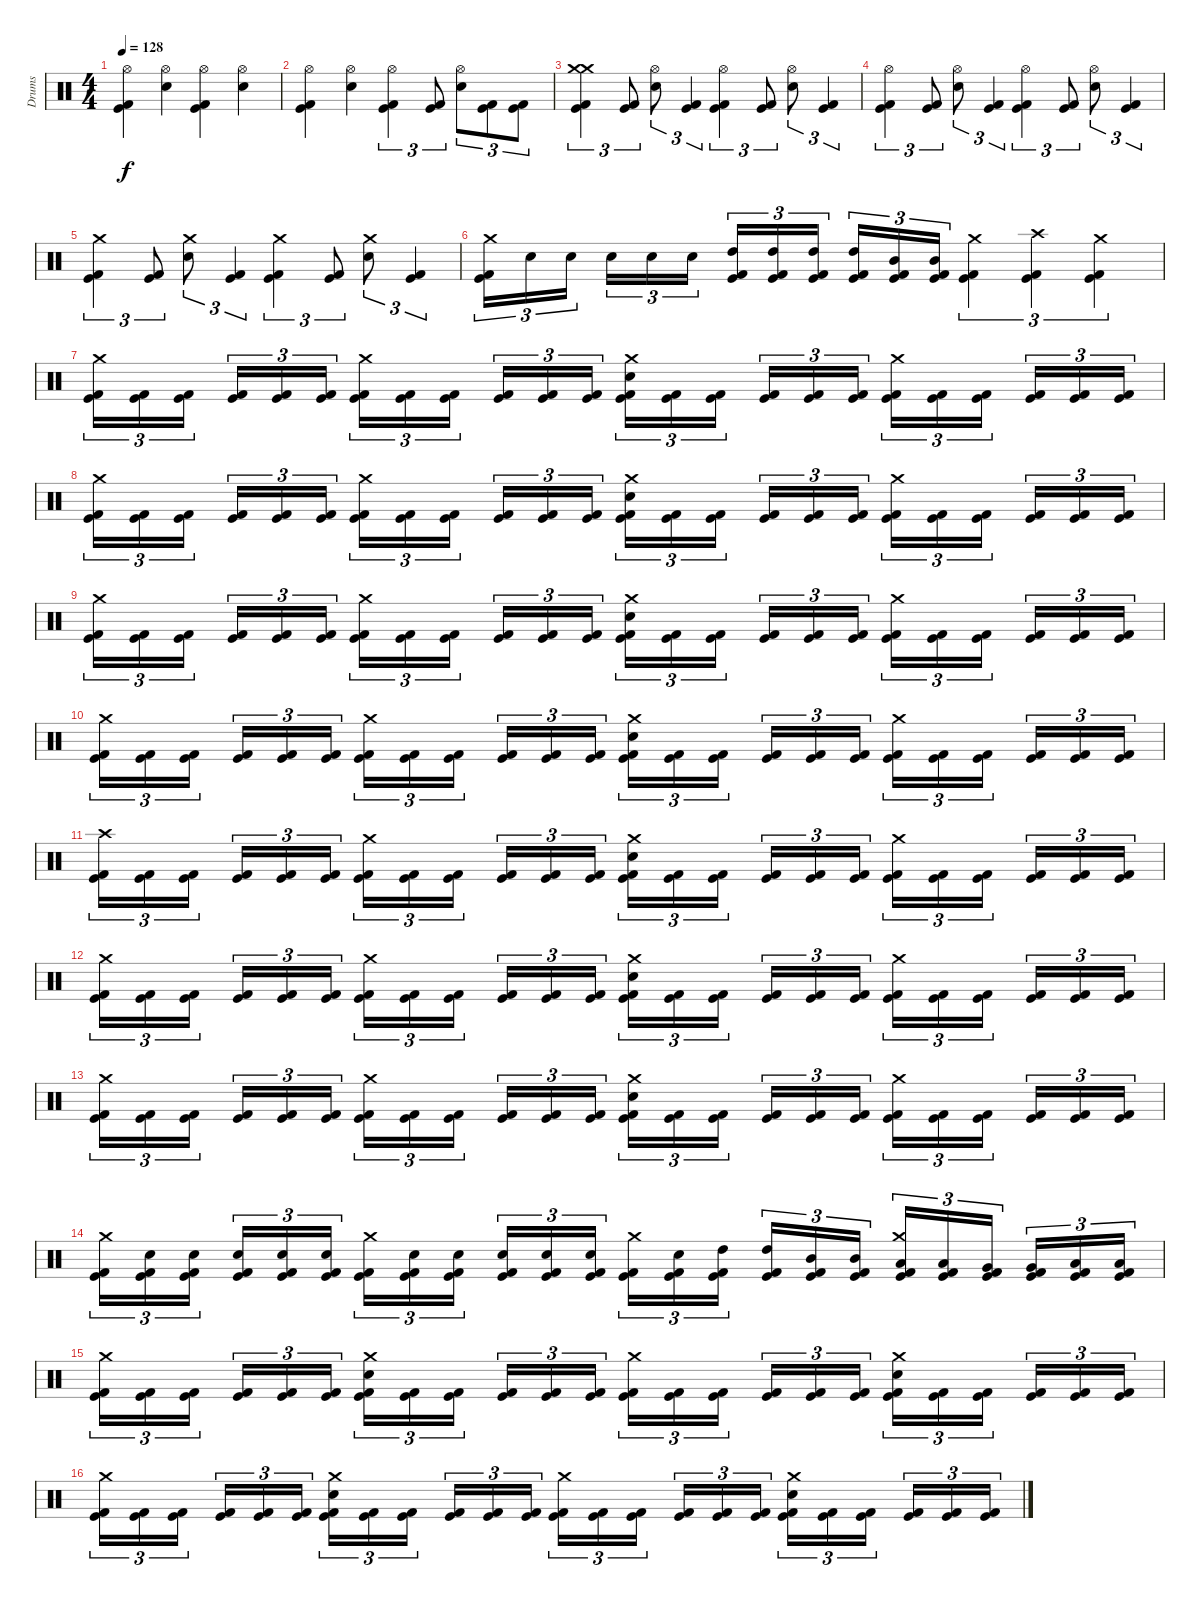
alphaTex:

\track ("Drums" "Drums") {instrument percussion}
\staff {score}
\articulation defaults
\ts (4 4)
\tempo 128
\clef neutral
\ks c
("Hi-Hat (open)" "Kick (hit)" "Kick (hit) 2").4{dy f} ("Hi-Hat (open)" "Electric Snare (hit)").4 ("Hi-Hat (open)" "Kick (hit)" "Kick (hit) 2").4 ("Hi-Hat (open)" "Electric Snare (hit)").4 |
("Hi-Hat (open)" "Kick (hit)" "Kick (hit) 2").4 ("Hi-Hat (open)" "Electric Snare (hit)").4 ("Hi-Hat (open)" "Kick (hit)" "Kick (hit) 2").4{tu (3 2)} ("Kick (hit)" "Kick (hit) 2").8{tu (3 2)} ("Hi-Hat (open)" "Electric Snare (hit)").8{tu (3 2)} ("Kick (hit)" "Kick (hit) 2").8{tu (3 2)} ("Kick (hit)" "Kick (hit) 2").8{tu (3 2)} |
("Crash medium (hit)" "Crash medium (hit)" "Kick (hit)" "Kick (hit) 2").4{tu (3 2)} ("Kick (hit)" "Kick (hit) 2").8{tu (3 2)} ("Hi-Hat (open)" "Electric Snare (hit)").8{tu (3 2)} ("Kick (hit)" "Kick (hit) 2").4{tu (3 2)} ("Hi-Hat (open)" "Kick (hit)" "Kick (hit) 2").4{tu (3 2)} ("Kick (hit)" "Kick (hit) 2").8{tu (3 2)} ("Hi-Hat (open)" "Electric Snare (hit)").8{tu (3 2)} ("Kick (hit)" "Kick (hit) 2").4{tu (3 2)} |
("Hi-Hat (open)" "Kick (hit)" "Kick (hit) 2").4{tu (3 2)} ("Kick (hit)" "Kick (hit) 2").8{tu (3 2)} ("Hi-Hat (open)" "Electric Snare (hit)").8{tu (3 2)} ("Kick (hit)" "Kick (hit) 2").4{tu (3 2)} ("Hi-Hat (open)" "Kick (hit)" "Kick (hit) 2").4{tu (3 2)} ("Kick (hit)" "Kick (hit) 2").8{tu (3 2)} ("Hi-Hat (open)" "Electric Snare (hit)").8{tu (3 2)} ("Kick (hit)" "Kick (hit) 2").4{tu (3 2)} |
("Crash medium (hit)" "Kick (hit)" "Kick (hit) 2").4{tu (3 2)} ("Kick (hit)" "Kick (hit) 2").8{tu (3 2)} ("Crash medium (hit)" "Electric Snare (hit)").8{tu (3 2)} ("Kick (hit)" "Kick (hit) 2").4{tu (3 2)} ("Crash medium (hit)" "Kick (hit)" "Kick (hit) 2").4{tu (3 2)} ("Kick (hit)" "Kick (hit) 2").8{tu (3 2)} ("Crash medium (hit)" "Electric Snare (hit)").8{tu (3 2)} ("Kick (hit)" "Kick (hit) 2").4{tu (3 2)} |
("Crash medium (hit)" "Kick (hit)" "Kick (hit) 2").16{tu (3 2)} "Electric Snare (hit)".16{tu (3 2)} "Electric Snare (hit)".16{tu (3 2)} "Electric Snare (hit)".16{tu (3 2)} "Electric Snare (hit)".16{tu (3 2)} "Electric Snare (hit)".16{tu (3 2)} ("High Tom (hit)" "Kick (hit)" "Kick (hit) 2").16{tu (3 2)} ("High Tom (hit)" "Kick (hit)" "Kick (hit) 2").16{tu (3 2)} ("High Tom (hit)" "Kick (hit)" "Kick (hit) 2").16{tu (3 2)} ("High Tom (hit)" "Kick (hit)" "Kick (hit) 2").16{tu (3 2)} ("Mid Tom (hit)" "Kick (hit)" "Kick (hit) 2").16{tu (3 2)} ("Mid Tom (hit)" "Kick (hit)" "Kick (hit) 2").16{tu (3 2)} ("Crash medium (hit)" "Kick (hit)" "Kick (hit) 2").4{tu (3 2)} ("Crash high (hit)" "Kick (hit)" "Kick (hit) 2").4{tu (3 2)} ("Crash medium (hit)" "Kick (hit)" "Kick (hit) 2").4{tu (3 2)} |
("Crash medium (hit)" "Kick (hit)" "Kick (hit) 2").16{tu (3 2)} ("Kick (hit)" "Kick (hit) 2").16{tu (3 2)} ("Kick (hit)" "Kick (hit) 2").16{tu (3 2)} ("Kick (hit)" "Kick (hit) 2").16{tu (3 2)} ("Kick (hit)" "Kick (hit) 2").16{tu (3 2)} ("Kick (hit)" "Kick (hit) 2").16{tu (3 2)} ("Crash medium (hit)" "Kick (hit)" "Kick (hit) 2").16{tu (3 2)} ("Kick (hit)" "Kick (hit) 2").16{tu (3 2)} ("Kick (hit)" "Kick (hit) 2").16{tu (3 2)} ("Kick (hit)" "Kick (hit) 2").16{tu (3 2)} ("Kick (hit)" "Kick (hit) 2").16{tu (3 2)} ("Kick (hit)" "Kick (hit) 2").16{tu (3 2)} ("Crash medium (hit)" "Electric Snare (hit)" "Kick (hit)" "Kick (hit) 2").16{tu (3 2)} ("Kick (hit)" "Kick (hit) 2").16{tu (3 2)} ("Kick (hit)" "Kick (hit) 2").16{tu (3 2)} ("Kick (hit)" "Kick (hit) 2").16{tu (3 2)} ("Kick (hit)" "Kick (hit) 2").16{tu (3 2)} ("Kick (hit)" "Kick (hit) 2").16{tu (3 2)} ("Crash medium (hit)" "Kick (hit)" "Kick (hit) 2").16{tu (3 2)} ("Kick (hit)" "Kick (hit) 2").16{tu (3 2)} ("Kick (hit)" "Kick (hit) 2").16{tu (3 2)} ("Kick (hit)" "Kick (hit) 2").16{tu (3 2)} ("Kick (hit)" "Kick (hit) 2").16{tu (3 2)} ("Kick (hit)" "Kick (hit) 2").16{tu (3 2)} |
("Crash medium (hit)" "Kick (hit)" "Kick (hit) 2").16{tu (3 2)} ("Kick (hit)" "Kick (hit) 2").16{tu (3 2)} ("Kick (hit)" "Kick (hit) 2").16{tu (3 2)} ("Kick (hit)" "Kick (hit) 2").16{tu (3 2)} ("Kick (hit)" "Kick (hit) 2").16{tu (3 2)} ("Kick (hit)" "Kick (hit) 2").16{tu (3 2)} ("Crash medium (hit)" "Kick (hit)" "Kick (hit) 2").16{tu (3 2)} ("Kick (hit)" "Kick (hit) 2").16{tu (3 2)} ("Kick (hit)" "Kick (hit) 2").16{tu (3 2)} ("Kick (hit)" "Kick (hit) 2").16{tu (3 2)} ("Kick (hit)" "Kick (hit) 2").16{tu (3 2)} ("Kick (hit)" "Kick (hit) 2").16{tu (3 2)} ("Crash medium (hit)" "Electric Snare (hit)" "Kick (hit)" "Kick (hit) 2").16{tu (3 2)} ("Kick (hit)" "Kick (hit) 2").16{tu (3 2)} ("Kick (hit)" "Kick (hit) 2").16{tu (3 2)} ("Kick (hit)" "Kick (hit) 2").16{tu (3 2)} ("Kick (hit)" "Kick (hit) 2").16{tu (3 2)} ("Kick (hit)" "Kick (hit) 2").16{tu (3 2)} ("Crash medium (hit)" "Kick (hit)" "Kick (hit) 2").16{tu (3 2)} ("Kick (hit)" "Kick (hit) 2").16{tu (3 2)} ("Kick (hit)" "Kick (hit) 2").16{tu (3 2)} ("Kick (hit)" "Kick (hit) 2").16{tu (3 2)} ("Kick (hit)" "Kick (hit) 2").16{tu (3 2)} ("Kick (hit)" "Kick (hit) 2").16{tu (3 2)} |
("Crash medium (hit)" "Kick (hit)" "Kick (hit) 2").16{tu (3 2)} ("Kick (hit)" "Kick (hit) 2").16{tu (3 2)} ("Kick (hit)" "Kick (hit) 2").16{tu (3 2)} ("Kick (hit)" "Kick (hit) 2").16{tu (3 2)} ("Kick (hit)" "Kick (hit) 2").16{tu (3 2)} ("Kick (hit)" "Kick (hit) 2").16{tu (3 2)} ("Crash medium (hit)" "Kick (hit)" "Kick (hit) 2").16{tu (3 2)} ("Kick (hit)" "Kick (hit) 2").16{tu (3 2)} ("Kick (hit)" "Kick (hit) 2").16{tu (3 2)} ("Kick (hit)" "Kick (hit) 2").16{tu (3 2)} ("Kick (hit)" "Kick (hit) 2").16{tu (3 2)} ("Kick (hit)" "Kick (hit) 2").16{tu (3 2)} ("Crash medium (hit)" "Electric Snare (hit)" "Kick (hit)" "Kick (hit) 2").16{tu (3 2)} ("Kick (hit)" "Kick (hit) 2").16{tu (3 2)} ("Kick (hit)" "Kick (hit) 2").16{tu (3 2)} ("Kick (hit)" "Kick (hit) 2").16{tu (3 2)} ("Kick (hit)" "Kick (hit) 2").16{tu (3 2)} ("Kick (hit)" "Kick (hit) 2").16{tu (3 2)} ("Crash medium (hit)" "Kick (hit)" "Kick (hit) 2").16{tu (3 2)} ("Kick (hit)" "Kick (hit) 2").16{tu (3 2)} ("Kick (hit)" "Kick (hit) 2").16{tu (3 2)} ("Kick (hit)" "Kick (hit) 2").16{tu (3 2)} ("Kick (hit)" "Kick (hit) 2").16{tu (3 2)} ("Kick (hit)" "Kick (hit) 2").16{tu (3 2)} |
("Crash medium (hit)" "Kick (hit)" "Kick (hit) 2").16{tu (3 2)} ("Kick (hit)" "Kick (hit) 2").16{tu (3 2)} ("Kick (hit)" "Kick (hit) 2").16{tu (3 2)} ("Kick (hit)" "Kick (hit) 2").16{tu (3 2)} ("Kick (hit)" "Kick (hit) 2").16{tu (3 2)} ("Kick (hit)" "Kick (hit) 2").16{tu (3 2)} ("Crash medium (hit)" "Kick (hit)" "Kick (hit) 2").16{tu (3 2)} ("Kick (hit)" "Kick (hit) 2").16{tu (3 2)} ("Kick (hit)" "Kick (hit) 2").16{tu (3 2)} ("Kick (hit)" "Kick (hit) 2").16{tu (3 2)} ("Kick (hit)" "Kick (hit) 2").16{tu (3 2)} ("Kick (hit)" "Kick (hit) 2").16{tu (3 2)} ("Crash medium (hit)" "Electric Snare (hit)" "Kick (hit)" "Kick (hit) 2").16{tu (3 2)} ("Kick (hit)" "Kick (hit) 2").16{tu (3 2)} ("Kick (hit)" "Kick (hit) 2").16{tu (3 2)} ("Kick (hit)" "Kick (hit) 2").16{tu (3 2)} ("Kick (hit)" "Kick (hit) 2").16{tu (3 2)} ("Kick (hit)" "Kick (hit) 2").16{tu (3 2)} ("Crash medium (hit)" "Kick (hit)" "Kick (hit) 2").16{tu (3 2)} ("Kick (hit)" "Kick (hit) 2").16{tu (3 2)} ("Kick (hit)" "Kick (hit) 2").16{tu (3 2)} ("Kick (hit)" "Kick (hit) 2").16{tu (3 2)} ("Kick (hit)" "Kick (hit) 2").16{tu (3 2)} ("Kick (hit)" "Kick (hit) 2").16{tu (3 2)} |
("Crash high (hit)" "Kick (hit)" "Kick (hit) 2").16{tu (3 2)} ("Kick (hit)" "Kick (hit) 2").16{tu (3 2)} ("Kick (hit)" "Kick (hit) 2").16{tu (3 2)} ("Kick (hit)" "Kick (hit) 2").16{tu (3 2)} ("Kick (hit)" "Kick (hit) 2").16{tu (3 2)} ("Kick (hit)" "Kick (hit) 2").16{tu (3 2)} ("Crash medium (hit)" "Kick (hit)" "Kick (hit) 2").16{tu (3 2)} ("Kick (hit)" "Kick (hit) 2").16{tu (3 2)} ("Kick (hit)" "Kick (hit) 2").16{tu (3 2)} ("Kick (hit)" "Kick (hit) 2").16{tu (3 2)} ("Kick (hit)" "Kick (hit) 2").16{tu (3 2)} ("Kick (hit)" "Kick (hit) 2").16{tu (3 2)} ("Crash medium (hit)" "Electric Snare (hit)" "Kick (hit)" "Kick (hit) 2").16{tu (3 2)} ("Kick (hit)" "Kick (hit) 2").16{tu (3 2)} ("Kick (hit)" "Kick (hit) 2").16{tu (3 2)} ("Kick (hit)" "Kick (hit) 2").16{tu (3 2)} ("Kick (hit)" "Kick (hit) 2").16{tu (3 2)} ("Kick (hit)" "Kick (hit) 2").16{tu (3 2)} ("Crash medium (hit)" "Kick (hit)" "Kick (hit) 2").16{tu (3 2)} ("Kick (hit)" "Kick (hit) 2").16{tu (3 2)} ("Kick (hit)" "Kick (hit) 2").16{tu (3 2)} ("Kick (hit)" "Kick (hit) 2").16{tu (3 2)} ("Kick (hit)" "Kick (hit) 2").16{tu (3 2)} ("Kick (hit)" "Kick (hit) 2").16{tu (3 2)} |
("Crash medium (hit)" "Kick (hit)" "Kick (hit) 2").16{tu (3 2)} ("Kick (hit)" "Kick (hit) 2").16{tu (3 2)} ("Kick (hit)" "Kick (hit) 2").16{tu (3 2)} ("Kick (hit)" "Kick (hit) 2").16{tu (3 2)} ("Kick (hit)" "Kick (hit) 2").16{tu (3 2)} ("Kick (hit)" "Kick (hit) 2").16{tu (3 2)} ("Crash medium (hit)" "Kick (hit)" "Kick (hit) 2").16{tu (3 2)} ("Kick (hit)" "Kick (hit) 2").16{tu (3 2)} ("Kick (hit)" "Kick (hit) 2").16{tu (3 2)} ("Kick (hit)" "Kick (hit) 2").16{tu (3 2)} ("Kick (hit)" "Kick (hit) 2").16{tu (3 2)} ("Kick (hit)" "Kick (hit) 2").16{tu (3 2)} ("Crash medium (hit)" "Electric Snare (hit)" "Kick (hit)" "Kick (hit) 2").16{tu (3 2)} ("Kick (hit)" "Kick (hit) 2").16{tu (3 2)} ("Kick (hit)" "Kick (hit) 2").16{tu (3 2)} ("Kick (hit)" "Kick (hit) 2").16{tu (3 2)} ("Kick (hit)" "Kick (hit) 2").16{tu (3 2)} ("Kick (hit)" "Kick (hit) 2").16{tu (3 2)} ("Crash medium (hit)" "Kick (hit)" "Kick (hit) 2").16{tu (3 2)} ("Kick (hit)" "Kick (hit) 2").16{tu (3 2)} ("Kick (hit)" "Kick (hit) 2").16{tu (3 2)} ("Kick (hit)" "Kick (hit) 2").16{tu (3 2)} ("Kick (hit)" "Kick (hit) 2").16{tu (3 2)} ("Kick (hit)" "Kick (hit) 2").16{tu (3 2)} |
("Crash medium (hit)" "Kick (hit)" "Kick (hit) 2").16{tu (3 2)} ("Kick (hit)" "Kick (hit) 2").16{tu (3 2)} ("Kick (hit)" "Kick (hit) 2").16{tu (3 2)} ("Kick (hit)" "Kick (hit) 2").16{tu (3 2)} ("Kick (hit)" "Kick (hit) 2").16{tu (3 2)} ("Kick (hit)" "Kick (hit) 2").16{tu (3 2)} ("Crash medium (hit)" "Kick (hit)" "Kick (hit) 2").16{tu (3 2)} ("Kick (hit)" "Kick (hit) 2").16{tu (3 2)} ("Kick (hit)" "Kick (hit) 2").16{tu (3 2)} ("Kick (hit)" "Kick (hit) 2").16{tu (3 2)} ("Kick (hit)" "Kick (hit) 2").16{tu (3 2)} ("Kick (hit)" "Kick (hit) 2").16{tu (3 2)} ("Crash medium (hit)" "Electric Snare (hit)" "Kick (hit)" "Kick (hit) 2").16{tu (3 2)} ("Kick (hit)" "Kick (hit) 2").16{tu (3 2)} ("Kick (hit)" "Kick (hit) 2").16{tu (3 2)} ("Kick (hit)" "Kick (hit) 2").16{tu (3 2)} ("Kick (hit)" "Kick (hit) 2").16{tu (3 2)} ("Kick (hit)" "Kick (hit) 2").16{tu (3 2)} ("Crash medium (hit)" "Kick (hit)" "Kick (hit) 2").16{tu (3 2)} ("Kick (hit)" "Kick (hit) 2").16{tu (3 2)} ("Kick (hit)" "Kick (hit) 2").16{tu (3 2)} ("Kick (hit)" "Kick (hit) 2").16{tu (3 2)} ("Kick (hit)" "Kick (hit) 2").16{tu (3 2)} ("Kick (hit)" "Kick (hit) 2").16{tu (3 2)} |
("Crash medium (hit)" "Kick (hit)" "Kick (hit) 2").16{tu (3 2)} ("Electric Snare (hit)" "Kick (hit)" "Kick (hit) 2").16{tu (3 2)} ("Electric Snare (hit)" "Kick (hit)" "Kick (hit) 2").16{tu (3 2)} ("Electric Snare (hit)" "Kick (hit)" "Kick (hit) 2").16{tu (3 2)} ("Electric Snare (hit)" "Kick (hit)" "Kick (hit) 2").16{tu (3 2)} ("Electric Snare (hit)" "Kick (hit)" "Kick (hit) 2").16{tu (3 2)} ("Crash medium (hit)" "Kick (hit)" "Kick (hit) 2").16{tu (3 2)} ("Electric Snare (hit)" "Kick (hit)" "Kick (hit) 2").16{tu (3 2)} ("Electric Snare (hit)" "Kick (hit)" "Kick (hit) 2").16{tu (3 2)} ("Electric Snare (hit)" "Kick (hit)" "Kick (hit) 2").16{tu (3 2)} ("Electric Snare (hit)" "Kick (hit)" "Kick (hit) 2").16{tu (3 2)} ("Electric Snare (hit)" "Kick (hit)" "Kick (hit) 2").16{tu (3 2)} ("Crash medium (hit)" "Kick (hit)" "Kick (hit) 2").16{tu (3 2)} ("Electric Snare (hit)" "Kick (hit)" "Kick (hit) 2").16{tu (3 2)} ("High Tom (hit)" "Kick (hit)" "Kick (hit) 2").16{tu (3 2)} ("High Tom (hit)" "Kick (hit)" "Kick (hit) 2").16{tu (3 2)} ("Mid Tom (hit)" "Kick (hit)" "Kick (hit) 2").16{tu (3 2)} ("Mid Tom (hit)" "Kick (hit)" "Kick (hit) 2").16{tu (3 2)} ("Crash medium (hit)" "Low Tom (hit)" "Kick (hit)" "Kick (hit) 2").16{tu (3 2)} ("Low Tom (hit)" "Kick (hit)" "Kick (hit) 2").16{tu (3 2)} ("Very Low Tom (hit)" "Kick (hit)" "Kick (hit) 2").16{tu (3 2)} ("Very Low Tom (hit)" "Kick (hit)" "Kick (hit) 2").16{tu (3 2)} ("Low Floor Tom (hit)" "Kick (hit)" "Kick (hit) 2").16{tu (3 2)} ("Low Floor Tom (hit)" "Kick (hit)" "Kick (hit) 2").16{tu (3 2)} |
("Crash medium (hit)" "Kick (hit)" "Kick (hit) 2").16{tu (3 2)} ("Kick (hit)" "Kick (hit) 2").16{tu (3 2)} ("Kick (hit)" "Kick (hit) 2").16{tu (3 2)} ("Kick (hit)" "Kick (hit) 2").16{tu (3 2)} ("Kick (hit)" "Kick (hit) 2").16{tu (3 2)} ("Kick (hit)" "Kick (hit) 2").16{tu (3 2)} ("Crash medium (hit)" "Electric Snare (hit)" "Kick (hit)" "Kick (hit) 2").16{tu (3 2)} ("Kick (hit)" "Kick (hit) 2").16{tu (3 2)} ("Kick (hit)" "Kick (hit) 2").16{tu (3 2)} ("Kick (hit)" "Kick (hit) 2").16{tu (3 2)} ("Kick (hit)" "Kick (hit) 2").16{tu (3 2)} ("Kick (hit)" "Kick (hit) 2").16{tu (3 2)} ("Crash medium (hit)" "Kick (hit)" "Kick (hit) 2").16{tu (3 2)} ("Kick (hit)" "Kick (hit) 2").16{tu (3 2)} ("Kick (hit)" "Kick (hit) 2").16{tu (3 2)} ("Kick (hit)" "Kick (hit) 2").16{tu (3 2)} ("Kick (hit)" "Kick (hit) 2").16{tu (3 2)} ("Kick (hit)" "Kick (hit) 2").16{tu (3 2)} ("Crash medium (hit)" "Electric Snare (hit)" "Kick (hit)" "Kick (hit) 2").16{tu (3 2)} ("Kick (hit)" "Kick (hit) 2").16{tu (3 2)} ("Kick (hit)" "Kick (hit) 2").16{tu (3 2)} ("Kick (hit)" "Kick (hit) 2").16{tu (3 2)} ("Kick (hit)" "Kick (hit) 2").16{tu (3 2)} ("Kick (hit)" "Kick (hit) 2").16{tu (3 2)} |
("Crash medium (hit)" "Kick (hit)" "Kick (hit) 2").16{tu (3 2)} ("Kick (hit)" "Kick (hit) 2").16{tu (3 2)} ("Kick (hit)" "Kick (hit) 2").16{tu (3 2)} ("Kick (hit)" "Kick (hit) 2").16{tu (3 2)} ("Kick (hit)" "Kick (hit) 2").16{tu (3 2)} ("Kick (hit)" "Kick (hit) 2").16{tu (3 2)} ("Crash medium (hit)" "Electric Snare (hit)" "Kick (hit)" "Kick (hit) 2").16{tu (3 2)} ("Kick (hit)" "Kick (hit) 2").16{tu (3 2)} ("Kick (hit)" "Kick (hit) 2").16{tu (3 2)} ("Kick (hit)" "Kick (hit) 2").16{tu (3 2)} ("Kick (hit)" "Kick (hit) 2").16{tu (3 2)} ("Kick (hit)" "Kick (hit) 2").16{tu (3 2)} ("Crash medium (hit)" "Kick (hit)" "Kick (hit) 2").16{tu (3 2)} ("Kick (hit)" "Kick (hit) 2").16{tu (3 2)} ("Kick (hit)" "Kick (hit) 2").16{tu (3 2)} ("Kick (hit)" "Kick (hit) 2").16{tu (3 2)} ("Kick (hit)" "Kick (hit) 2").16{tu (3 2)} ("Kick (hit)" "Kick (hit) 2").16{tu (3 2)} ("Crash medium (hit)" "Electric Snare (hit)" "Kick (hit)" "Kick (hit) 2").16{tu (3 2)} ("Kick (hit)" "Kick (hit) 2").16{tu (3 2)} ("Kick (hit)" "Kick (hit) 2").16{tu (3 2)} ("Kick (hit)" "Kick (hit) 2").16{tu (3 2)} ("Kick (hit)" "Kick (hit) 2").16{tu (3 2)} ("Kick (hit)" "Kick (hit) 2").16{tu (3 2)}
